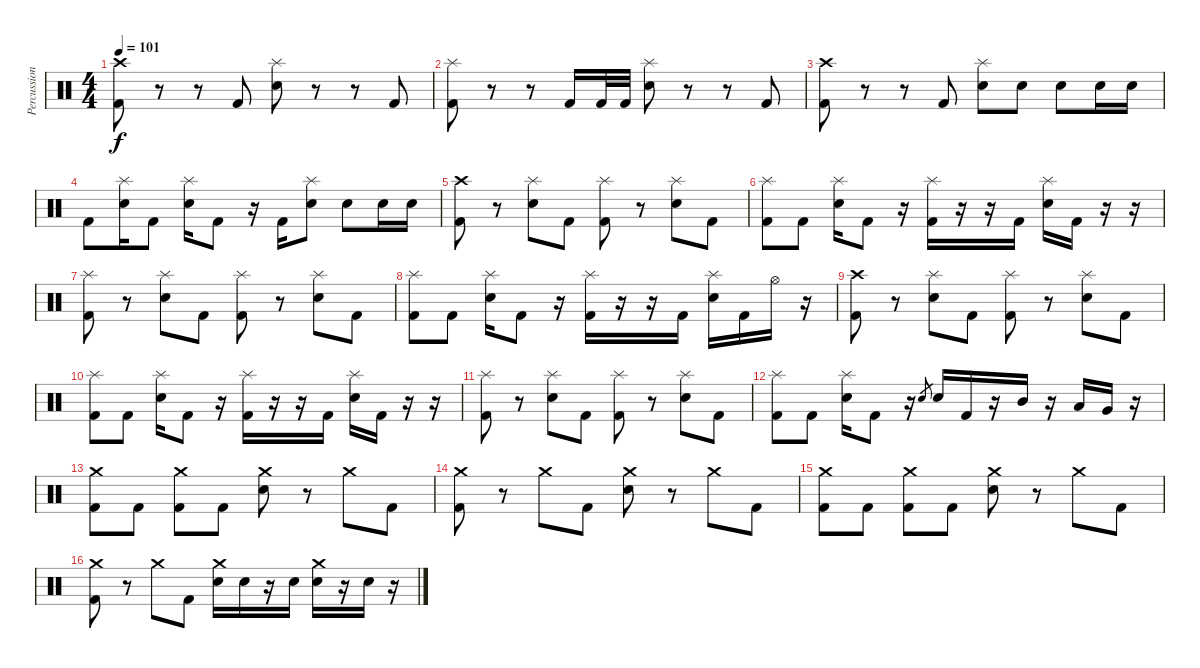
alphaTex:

\track ("Percussion" "Percussion") {instrument percussion}
\staff {score}
\articulation defaults
\ts (4 4)
\tempo 101
\clef neutral
\ks c
("Crash high (hit)" "Kick (hit) 2").8{dy f} r.8 r.8 "Kick (hit) 2".8 ("Splash (hit)" "Electric Snare (hit)").8 r.8 r.8 "Kick (hit) 2".8 |
("Splash (hit)" "Kick (hit) 2").8 r.8 r.8 "Kick (hit) 2".16 "Kick (hit) 2".32 "Kick (hit) 2".32 ("Splash (hit)" "Electric Snare (hit)").8 r.8 r.8 "Kick (hit) 2".8 |
("Crash high (hit)" "Kick (hit) 2").8 r.8 r.8 "Kick (hit) 2".8 ("Splash (hit)" "Electric Snare (hit)").8 "Electric Snare (hit)".8 "Electric Snare (hit)".8 "Electric Snare (hit)".16 "Electric Snare (hit)".16 |
"Kick (hit) 2".8 ("Splash (hit)" "Electric Snare (hit)").16 "Kick (hit) 2".8 ("Splash (hit)" "Electric Snare (hit)").16 "Kick (hit) 2".8 r.16 "Kick (hit) 2".16 ("Splash (hit)" "Electric Snare (hit)").8 "Electric Snare (hit)".8 "Electric Snare (hit)".16 "Electric Snare (hit)".16 |
("Crash high (hit)" "Kick (hit) 2").8 r.8 ("Splash (hit)" "Electric Snare (hit)").8 "Kick (hit) 2".8 ("Splash (hit)" "Kick (hit) 2").8 r.8 ("Splash (hit)" "Electric Snare (hit)").8 "Kick (hit) 2".8 |
("Splash (hit)" "Kick (hit) 2").8 "Kick (hit) 2".8 ("Splash (hit)" "Electric Snare (hit)").16 "Kick (hit) 2".8 r.16 ("Splash (hit)" "Kick (hit) 2").16 r.16 r.16 "Kick (hit) 2".16 ("Splash (hit)" "Electric Snare (hit)").16 "Kick (hit) 2".16 r.16 r.16 |
("Splash (hit)" "Kick (hit) 2").8 r.8 ("Splash (hit)" "Electric Snare (hit)").8 "Kick (hit) 2".8 ("Splash (hit)" "Kick (hit) 2").8 r.8 ("Splash (hit)" "Electric Snare (hit)").8 "Kick (hit) 2".8 |
("Splash (hit)" "Kick (hit) 2").8 "Kick (hit) 2".8 ("Splash (hit)" "Electric Snare (hit)").16 "Kick (hit) 2".8 r.16 ("Splash (hit)" "Kick (hit) 2").16 r.16 r.16 "Kick (hit) 2".16 ("Splash (hit)" "Electric Snare (hit)").16 "Kick (hit) 2".16 "Hi-Hat (open)".16 r.16 |
("Crash high (hit)" "Kick (hit) 2").8 r.8 ("Splash (hit)" "Electric Snare (hit)").8 "Kick (hit) 2".8 ("Splash (hit)" "Kick (hit) 2").8 r.8 ("Splash (hit)" "Electric Snare (hit)").8 "Kick (hit) 2".8 |
("Splash (hit)" "Kick (hit) 2").8 "Kick (hit) 2".8 ("Splash (hit)" "Electric Snare (hit)").16 "Kick (hit) 2".8 r.16 ("Splash (hit)" "Kick (hit) 2").16 r.16 r.16 "Kick (hit) 2".16 ("Splash (hit)" "Electric Snare (hit)").16 "Kick (hit) 2".16 r.16 r.16 |
("Splash (hit)" "Kick (hit) 2").8 r.8 ("Splash (hit)" "Electric Snare (hit)").8 "Kick (hit) 2".8 ("Splash (hit)" "Kick (hit) 2").8 r.8 ("Splash (hit)" "Electric Snare (hit)").8 "Kick (hit) 2".8 |
("Splash (hit)" "Kick (hit) 2").8 "Kick (hit) 2".8 ("Splash (hit)" "Electric Snare (hit)").16 "Kick (hit) 2".8 r.16 "Electric Snare (hit)".8{gr} "Electric Snare (hit)".16 "Kick (hit) 2".16 r.16 "Mid Tom (hit)".16 r.16 "Low Tom (hit)".16 "Very Low Tom (hit)".16 r.16 |
("Crash medium (hit)" "Kick (hit) 2").8 "Kick (hit) 2".8 ("Crash medium (hit)" "Kick (hit) 2").8 "Kick (hit) 2".8 ("Crash medium (hit)" "Electric Snare (hit)").8 r.8 "Crash medium (hit)".8 "Kick (hit) 2".8 |
("Crash medium (hit)" "Kick (hit) 2").8 r.8 "Crash medium (hit)".8 "Kick (hit) 2".8 ("Crash medium (hit)" "Electric Snare (hit)").8 r.8 "Crash medium (hit)".8 "Kick (hit) 2".8 |
("Crash medium (hit)" "Kick (hit) 2").8 "Kick (hit) 2".8 ("Crash medium (hit)" "Kick (hit) 2").8 "Kick (hit) 2".8 ("Crash medium (hit)" "Electric Snare (hit)").8 r.8 "Crash medium (hit)".8 "Kick (hit) 2".8 |
("Crash medium (hit)" "Kick (hit) 2").8 r.8 "Crash medium (hit)".8 "Kick (hit) 2".8 ("Crash medium (hit)" "Electric Snare (hit)").16 "Electric Snare (hit)".16 r.16 "Electric Snare (hit)".16 ("Crash medium (hit)" "Electric Snare (hit)").16 r.16 "Electric Snare (hit)".16 r.16
